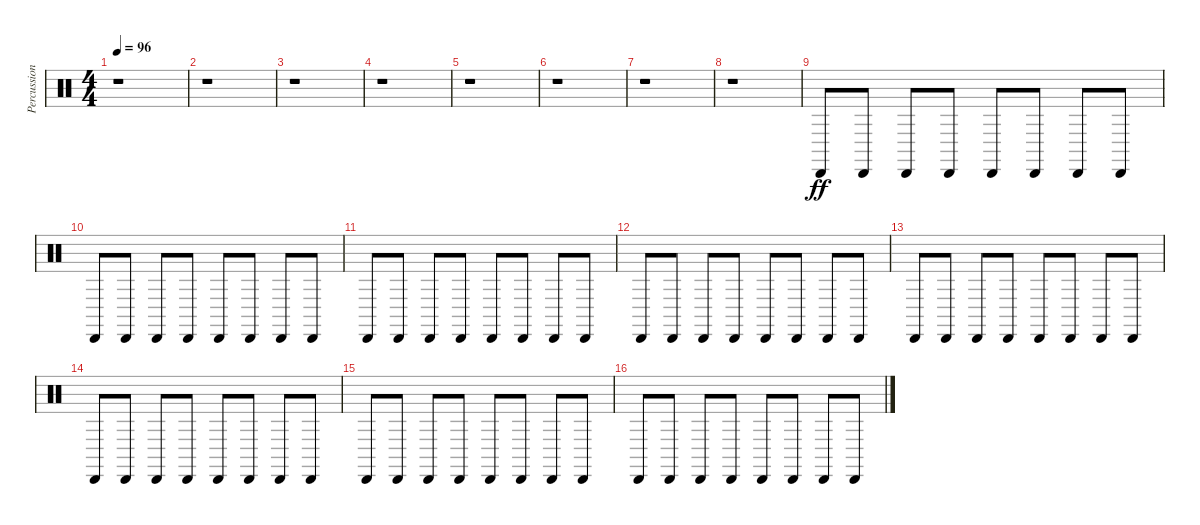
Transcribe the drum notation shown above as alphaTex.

\track ("Percussion 2" "Percussion") {instrument percussion}
\staff {score}
\articulation defaults
\ts (4 4)
\tempo 96
\clef neutral
\ks c
r.1{dy ff} |
r.1 |
r.1 |
r.1 |
r.1 |
r.1 |
r.1 |
r.1 |
"Cabasa (hit)".8 "Cabasa (hit)".8 "Cabasa (hit)".8 "Cabasa (hit)".8 "Cabasa (hit)".8 "Cabasa (hit)".8 "Cabasa (hit)".8 "Cabasa (hit)".8 |
"Cabasa (hit)".8 "Cabasa (hit)".8 "Cabasa (hit)".8 "Cabasa (hit)".8 "Cabasa (hit)".8 "Cabasa (hit)".8 "Cabasa (hit)".8 "Cabasa (hit)".8 |
"Cabasa (hit)".8 "Cabasa (hit)".8 "Cabasa (hit)".8 "Cabasa (hit)".8 "Cabasa (hit)".8 "Cabasa (hit)".8 "Cabasa (hit)".8 "Cabasa (hit)".8 |
"Cabasa (hit)".8 "Cabasa (hit)".8 "Cabasa (hit)".8 "Cabasa (hit)".8 "Cabasa (hit)".8 "Cabasa (hit)".8 "Cabasa (hit)".8 "Cabasa (hit)".8 |
"Cabasa (hit)".8 "Cabasa (hit)".8 "Cabasa (hit)".8 "Cabasa (hit)".8 "Cabasa (hit)".8 "Cabasa (hit)".8 "Cabasa (hit)".8 "Cabasa (hit)".8 |
"Cabasa (hit)".8 "Cabasa (hit)".8 "Cabasa (hit)".8 "Cabasa (hit)".8 "Cabasa (hit)".8 "Cabasa (hit)".8 "Cabasa (hit)".8 "Cabasa (hit)".8 |
"Cabasa (hit)".8 "Cabasa (hit)".8 "Cabasa (hit)".8 "Cabasa (hit)".8 "Cabasa (hit)".8 "Cabasa (hit)".8 "Cabasa (hit)".8 "Cabasa (hit)".8 |
"Cabasa (hit)".8 "Cabasa (hit)".8 "Cabasa (hit)".8 "Cabasa (hit)".8 "Cabasa (hit)".8 "Cabasa (hit)".8 "Cabasa (hit)".8 "Cabasa (hit)".8
